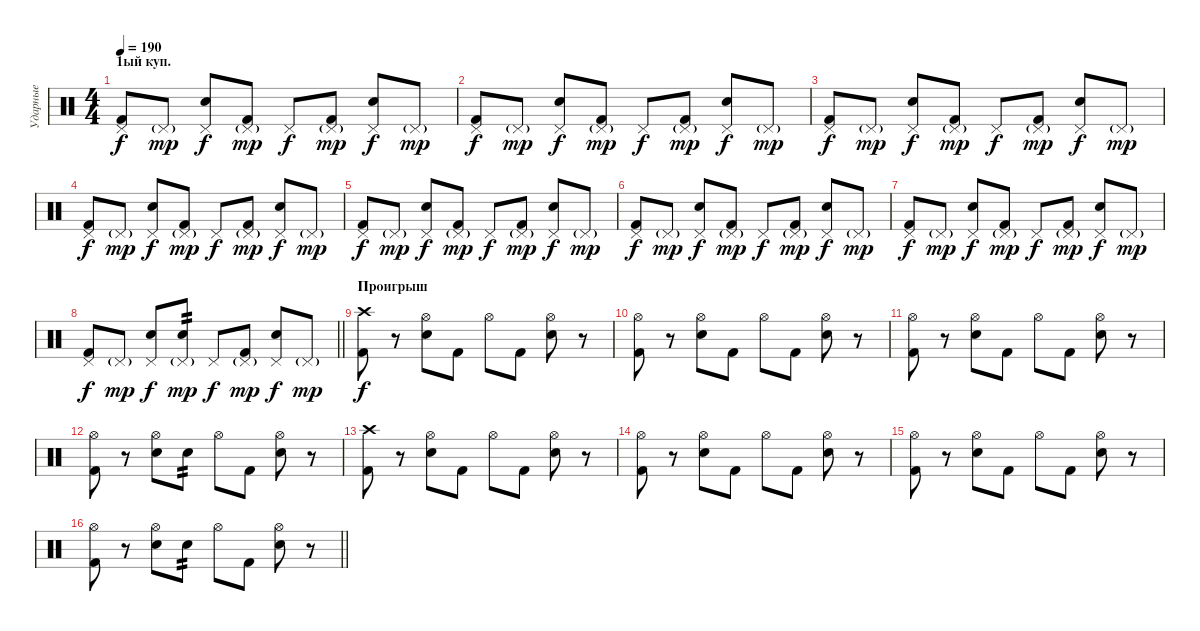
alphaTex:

\track ("Ударные" "Ударные") {instrument percussion}
\staff {score}
\articulation defaults
\ts (4 4)
\section ("" "1ый куп.")
\tempo 190
\clef neutral
\ks c
("Pedal Hi-Hat (hit)" "Kick (hit) 2").8{dy f} "Pedal Hi-Hat (hit)"{g}.8{dy mp} ("Pedal Hi-Hat (hit)" "Electric Snare (hit)").8{dy f} ("Pedal Hi-Hat (hit)"{g} "Kick (hit) 2").8{dy mp} "Pedal Hi-Hat (hit)".8{dy f} ("Pedal Hi-Hat (hit)"{g} "Kick (hit) 2").8{dy mp} ("Pedal Hi-Hat (hit)" "Electric Snare (hit)").8{dy f} "Pedal Hi-Hat (hit)"{g}.8{dy mp} |
("Pedal Hi-Hat (hit)" "Kick (hit) 2").8{dy f} "Pedal Hi-Hat (hit)"{g}.8{dy mp} ("Pedal Hi-Hat (hit)" "Electric Snare (hit)").8{dy f} ("Pedal Hi-Hat (hit)"{g} "Kick (hit) 2").8{dy mp} "Pedal Hi-Hat (hit)".8{dy f} ("Pedal Hi-Hat (hit)"{g} "Kick (hit) 2").8{dy mp} ("Pedal Hi-Hat (hit)" "Electric Snare (hit)").8{dy f} "Pedal Hi-Hat (hit)"{g}.8{dy mp} |
("Pedal Hi-Hat (hit)" "Kick (hit) 2").8{dy f} "Pedal Hi-Hat (hit)"{g}.8{dy mp} ("Pedal Hi-Hat (hit)" "Electric Snare (hit)").8{dy f} ("Pedal Hi-Hat (hit)"{g} "Kick (hit) 2").8{dy mp} "Pedal Hi-Hat (hit)".8{dy f} ("Pedal Hi-Hat (hit)"{g} "Kick (hit) 2").8{dy mp} ("Pedal Hi-Hat (hit)" "Electric Snare (hit)").8{dy f} "Pedal Hi-Hat (hit)"{g}.8{dy mp} |
("Pedal Hi-Hat (hit)" "Kick (hit) 2").8{dy f} "Pedal Hi-Hat (hit)"{g}.8{dy mp} ("Pedal Hi-Hat (hit)" "Electric Snare (hit)").8{dy f} ("Pedal Hi-Hat (hit)"{g} "Kick (hit) 2").8{dy mp} "Pedal Hi-Hat (hit)".8{dy f} ("Pedal Hi-Hat (hit)"{g} "Kick (hit) 2").8{dy mp} ("Pedal Hi-Hat (hit)" "Electric Snare (hit)").8{dy f} "Pedal Hi-Hat (hit)"{g}.8{dy mp} |
("Pedal Hi-Hat (hit)" "Kick (hit) 2").8{dy f} "Pedal Hi-Hat (hit)"{g}.8{dy mp} ("Pedal Hi-Hat (hit)" "Electric Snare (hit)").8{dy f} ("Pedal Hi-Hat (hit)"{g} "Kick (hit) 2").8{dy mp} "Pedal Hi-Hat (hit)".8{dy f} ("Pedal Hi-Hat (hit)"{g} "Kick (hit) 2").8{dy mp} ("Pedal Hi-Hat (hit)" "Electric Snare (hit)").8{dy f} "Pedal Hi-Hat (hit)"{g}.8{dy mp} |
("Pedal Hi-Hat (hit)" "Kick (hit) 2").8{dy f} "Pedal Hi-Hat (hit)"{g}.8{dy mp} ("Pedal Hi-Hat (hit)" "Electric Snare (hit)").8{dy f} ("Pedal Hi-Hat (hit)"{g} "Kick (hit) 2").8{dy mp} "Pedal Hi-Hat (hit)".8{dy f} ("Pedal Hi-Hat (hit)"{g} "Kick (hit) 2").8{dy mp} ("Pedal Hi-Hat (hit)" "Electric Snare (hit)").8{dy f} "Pedal Hi-Hat (hit)"{g}.8{dy mp} |
("Pedal Hi-Hat (hit)" "Kick (hit) 2").8{dy f} "Pedal Hi-Hat (hit)"{g}.8{dy mp} ("Pedal Hi-Hat (hit)" "Electric Snare (hit)").8{dy f} ("Pedal Hi-Hat (hit)"{g} "Kick (hit) 2").8{dy mp} "Pedal Hi-Hat (hit)".8{dy f} ("Pedal Hi-Hat (hit)"{g} "Kick (hit) 2").8{dy mp} ("Pedal Hi-Hat (hit)" "Electric Snare (hit)").8{dy f} "Pedal Hi-Hat (hit)"{g}.8{dy mp} |
\barLineRight lightlight
("Pedal Hi-Hat (hit)" "Kick (hit) 2").8{dy f} "Pedal Hi-Hat (hit)"{g}.8{dy mp} ("Pedal Hi-Hat (hit)" "Electric Snare (hit)").8{dy f} ("Pedal Hi-Hat (hit)"{g} "Electric Snare (hit)").8{tp 2 dy mp} "Pedal Hi-Hat (hit)".8{dy f} ("Pedal Hi-Hat (hit)"{g} "Kick (hit) 2").8{dy mp} ("Pedal Hi-Hat (hit)" "Electric Snare (hit)").8{dy f} "Pedal Hi-Hat (hit)"{g}.8{dy mp} |
\section ("" "Проигрыш")
("Crash high (hit)" "Kick (hit) 2").8{dy f} r.8 ("Hi-Hat (open)" "Electric Snare (hit)").8 "Kick (hit) 2".8 "Hi-Hat (open)".8 "Kick (hit) 2".8 ("Hi-Hat (open)" "Electric Snare (hit)").8 r.8 |
("Hi-Hat (open)" "Kick (hit) 2").8 r.8 ("Hi-Hat (open)" "Electric Snare (hit)").8 "Kick (hit) 2".8 "Hi-Hat (open)".8 "Kick (hit) 2".8 ("Hi-Hat (open)" "Electric Snare (hit)").8 r.8 |
("Hi-Hat (open)" "Kick (hit) 2").8 r.8 ("Hi-Hat (open)" "Electric Snare (hit)").8 "Kick (hit) 2".8 "Hi-Hat (open)".8 "Kick (hit) 2".8 ("Hi-Hat (open)" "Electric Snare (hit)").8 r.8 |
("Hi-Hat (open)" "Kick (hit) 2").8 r.8 ("Hi-Hat (open)" "Electric Snare (hit)").8 "Electric Snare (hit)".8{tp 2} "Hi-Hat (open)".8 "Kick (hit) 2".8 ("Hi-Hat (open)" "Electric Snare (hit)").8 r.8 |
("Crash high (hit)" "Kick (hit) 2").8 r.8 ("Hi-Hat (open)" "Electric Snare (hit)").8 "Kick (hit) 2".8 "Hi-Hat (open)".8 "Kick (hit) 2".8 ("Hi-Hat (open)" "Electric Snare (hit)").8 r.8 |
("Hi-Hat (open)" "Kick (hit) 2").8 r.8 ("Hi-Hat (open)" "Electric Snare (hit)").8 "Kick (hit) 2".8 "Hi-Hat (open)".8 "Kick (hit) 2".8 ("Hi-Hat (open)" "Electric Snare (hit)").8 r.8 |
("Hi-Hat (open)" "Kick (hit) 2").8 r.8 ("Hi-Hat (open)" "Electric Snare (hit)").8 "Kick (hit) 2".8 "Hi-Hat (open)".8 "Kick (hit) 2".8 ("Hi-Hat (open)" "Electric Snare (hit)").8 r.8 |
\barLineRight lightlight
("Hi-Hat (open)" "Kick (hit) 2").8 r.8 ("Hi-Hat (open)" "Electric Snare (hit)").8 "Electric Snare (hit)".8{tp 2} "Hi-Hat (open)".8 "Kick (hit) 2".8 ("Hi-Hat (open)" "Electric Snare (hit)").8 r.8
